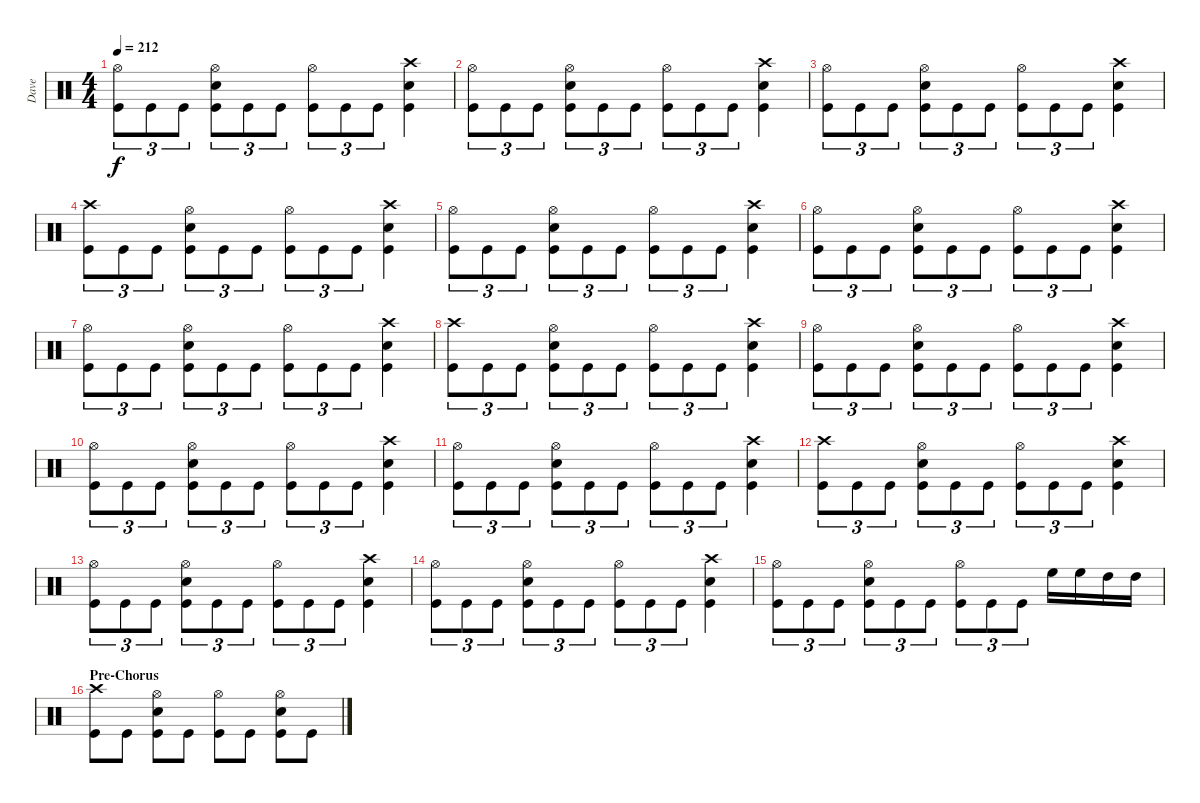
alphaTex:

\track ("Dave" "Dave") {instrument percussion}
\staff {score}
\articulation defaults
\ts (4 4)
\tempo 212
\clef neutral
\ks c
("Hi-Hat (open)" "Kick (hit)").8{tu (3 2) dy f} "Kick (hit)".8{tu (3 2)} "Kick (hit)".8{tu (3 2)} ("Hi-Hat (open)" "Snare (hit) 2" "Kick (hit)").8{tu (3 2)} "Kick (hit)".8{tu (3 2)} "Kick (hit)".8{tu (3 2)} ("Hi-Hat (open)" "Kick (hit)").8{tu (3 2)} "Kick (hit)".8{tu (3 2)} "Kick (hit)".8{tu (3 2)} ("Crash high (hit)" "Snare (hit) 2" "Kick (hit)").4 |
("Hi-Hat (open)" "Kick (hit)").8{tu (3 2)} "Kick (hit)".8{tu (3 2)} "Kick (hit)".8{tu (3 2)} ("Hi-Hat (open)" "Snare (hit) 2" "Kick (hit)").8{tu (3 2)} "Kick (hit)".8{tu (3 2)} "Kick (hit)".8{tu (3 2)} ("Hi-Hat (open)" "Kick (hit)").8{tu (3 2)} "Kick (hit)".8{tu (3 2)} "Kick (hit)".8{tu (3 2)} ("Crash high (hit)" "Snare (hit) 2" "Kick (hit)").4 |
("Hi-Hat (open)" "Kick (hit)").8{tu (3 2)} "Kick (hit)".8{tu (3 2)} "Kick (hit)".8{tu (3 2)} ("Hi-Hat (open)" "Snare (hit) 2" "Kick (hit)").8{tu (3 2)} "Kick (hit)".8{tu (3 2)} "Kick (hit)".8{tu (3 2)} ("Hi-Hat (open)" "Kick (hit)").8{tu (3 2)} "Kick (hit)".8{tu (3 2)} "Kick (hit)".8{tu (3 2)} ("Crash high (hit)" "Snare (hit) 2" "Kick (hit)").4 |
("Crash high (hit)" "Kick (hit)").8{tu (3 2)} "Kick (hit)".8{tu (3 2)} "Kick (hit)".8{tu (3 2)} ("Hi-Hat (open)" "Snare (hit) 2" "Kick (hit)").8{tu (3 2)} "Kick (hit)".8{tu (3 2)} "Kick (hit)".8{tu (3 2)} ("Hi-Hat (open)" "Kick (hit)").8{tu (3 2)} "Kick (hit)".8{tu (3 2)} "Kick (hit)".8{tu (3 2)} ("Crash high (hit)" "Snare (hit) 2" "Kick (hit)").4 |
("Hi-Hat (open)" "Kick (hit)").8{tu (3 2)} "Kick (hit)".8{tu (3 2)} "Kick (hit)".8{tu (3 2)} ("Hi-Hat (open)" "Snare (hit) 2" "Kick (hit)").8{tu (3 2)} "Kick (hit)".8{tu (3 2)} "Kick (hit)".8{tu (3 2)} ("Hi-Hat (open)" "Kick (hit)").8{tu (3 2)} "Kick (hit)".8{tu (3 2)} "Kick (hit)".8{tu (3 2)} ("Crash high (hit)" "Snare (hit) 2" "Kick (hit)").4 |
("Hi-Hat (open)" "Kick (hit)").8{tu (3 2)} "Kick (hit)".8{tu (3 2)} "Kick (hit)".8{tu (3 2)} ("Hi-Hat (open)" "Snare (hit) 2" "Kick (hit)").8{tu (3 2)} "Kick (hit)".8{tu (3 2)} "Kick (hit)".8{tu (3 2)} ("Hi-Hat (open)" "Kick (hit)").8{tu (3 2)} "Kick (hit)".8{tu (3 2)} "Kick (hit)".8{tu (3 2)} ("Crash high (hit)" "Snare (hit) 2" "Kick (hit)").4 |
("Hi-Hat (open)" "Kick (hit)").8{tu (3 2)} "Kick (hit)".8{tu (3 2)} "Kick (hit)".8{tu (3 2)} ("Hi-Hat (open)" "Snare (hit) 2" "Kick (hit)").8{tu (3 2)} "Kick (hit)".8{tu (3 2)} "Kick (hit)".8{tu (3 2)} ("Hi-Hat (open)" "Kick (hit)").8{tu (3 2)} "Kick (hit)".8{tu (3 2)} "Kick (hit)".8{tu (3 2)} ("Crash high (hit)" "Snare (hit) 2" "Kick (hit)").4 |
("Crash high (hit)" "Kick (hit)").8{tu (3 2)} "Kick (hit)".8{tu (3 2)} "Kick (hit)".8{tu (3 2)} ("Hi-Hat (open)" "Snare (hit) 2" "Kick (hit)").8{tu (3 2)} "Kick (hit)".8{tu (3 2)} "Kick (hit)".8{tu (3 2)} ("Hi-Hat (open)" "Kick (hit)").8{tu (3 2)} "Kick (hit)".8{tu (3 2)} "Kick (hit)".8{tu (3 2)} ("Crash high (hit)" "Snare (hit) 2" "Kick (hit)").4 |
("Hi-Hat (open)" "Kick (hit)").8{tu (3 2)} "Kick (hit)".8{tu (3 2)} "Kick (hit)".8{tu (3 2)} ("Hi-Hat (open)" "Snare (hit) 2" "Kick (hit)").8{tu (3 2)} "Kick (hit)".8{tu (3 2)} "Kick (hit)".8{tu (3 2)} ("Hi-Hat (open)" "Kick (hit)").8{tu (3 2)} "Kick (hit)".8{tu (3 2)} "Kick (hit)".8{tu (3 2)} ("Crash high (hit)" "Snare (hit) 2" "Kick (hit)").4 |
("Hi-Hat (open)" "Kick (hit)").8{tu (3 2)} "Kick (hit)".8{tu (3 2)} "Kick (hit)".8{tu (3 2)} ("Hi-Hat (open)" "Snare (hit) 2" "Kick (hit)").8{tu (3 2)} "Kick (hit)".8{tu (3 2)} "Kick (hit)".8{tu (3 2)} ("Hi-Hat (open)" "Kick (hit)").8{tu (3 2)} "Kick (hit)".8{tu (3 2)} "Kick (hit)".8{tu (3 2)} ("Crash high (hit)" "Snare (hit) 2" "Kick (hit)").4 |
("Hi-Hat (open)" "Kick (hit)").8{tu (3 2)} "Kick (hit)".8{tu (3 2)} "Kick (hit)".8{tu (3 2)} ("Hi-Hat (open)" "Snare (hit) 2" "Kick (hit)").8{tu (3 2)} "Kick (hit)".8{tu (3 2)} "Kick (hit)".8{tu (3 2)} ("Hi-Hat (open)" "Kick (hit)").8{tu (3 2)} "Kick (hit)".8{tu (3 2)} "Kick (hit)".8{tu (3 2)} ("Crash high (hit)" "Snare (hit) 2" "Kick (hit)").4 |
("Crash high (hit)" "Kick (hit)").8{tu (3 2)} "Kick (hit)".8{tu (3 2)} "Kick (hit)".8{tu (3 2)} ("Hi-Hat (open)" "Snare (hit) 2" "Kick (hit)").8{tu (3 2)} "Kick (hit)".8{tu (3 2)} "Kick (hit)".8{tu (3 2)} ("Hi-Hat (open)" "Kick (hit)").8{tu (3 2)} "Kick (hit)".8{tu (3 2)} "Kick (hit)".8{tu (3 2)} ("Crash high (hit)" "Snare (hit) 2" "Kick (hit)").4 |
("Hi-Hat (open)" "Kick (hit)").8{tu (3 2)} "Kick (hit)".8{tu (3 2)} "Kick (hit)".8{tu (3 2)} ("Hi-Hat (open)" "Snare (hit) 2" "Kick (hit)").8{tu (3 2)} "Kick (hit)".8{tu (3 2)} "Kick (hit)".8{tu (3 2)} ("Hi-Hat (open)" "Kick (hit)").8{tu (3 2)} "Kick (hit)".8{tu (3 2)} "Kick (hit)".8{tu (3 2)} ("Crash high (hit)" "Snare (hit) 2" "Kick (hit)").4 |
("Hi-Hat (open)" "Kick (hit)").8{tu (3 2)} "Kick (hit)".8{tu (3 2)} "Kick (hit)".8{tu (3 2)} ("Hi-Hat (open)" "Snare (hit) 2" "Kick (hit)").8{tu (3 2)} "Kick (hit)".8{tu (3 2)} "Kick (hit)".8{tu (3 2)} ("Hi-Hat (open)" "Kick (hit)").8{tu (3 2)} "Kick (hit)".8{tu (3 2)} "Kick (hit)".8{tu (3 2)} ("Crash high (hit)" "Snare (hit) 2" "Kick (hit)").4 |
("Hi-Hat (open)" "Kick (hit)").8{tu (3 2)} "Kick (hit)".8{tu (3 2)} "Kick (hit)".8{tu (3 2)} ("Hi-Hat (open)" "Snare (hit) 2" "Kick (hit)").8{tu (3 2)} "Kick (hit)".8{tu (3 2)} "Kick (hit)".8{tu (3 2)} ("Hi-Hat (open)" "Kick (hit)").8{tu (3 2)} "Kick (hit)".8{tu (3 2)} "Kick (hit)".8{tu (3 2)} "High Floor Tom (hit)".16 "High Floor Tom (hit)".16 "High Tom (hit)".16 "High Tom (hit)".16 |
\section ("" "Pre-Chorus")
("Crash high (hit)" "Kick (hit)").8 "Kick (hit)".8 ("Hi-Hat (open)" "Snare (hit) 2" "Kick (hit)").8 "Kick (hit)".8 ("Hi-Hat (open)" "Kick (hit)").8 "Kick (hit)".8 ("Hi-Hat (open)" "Snare (hit) 2" "Kick (hit)").8 "Kick (hit)".8
